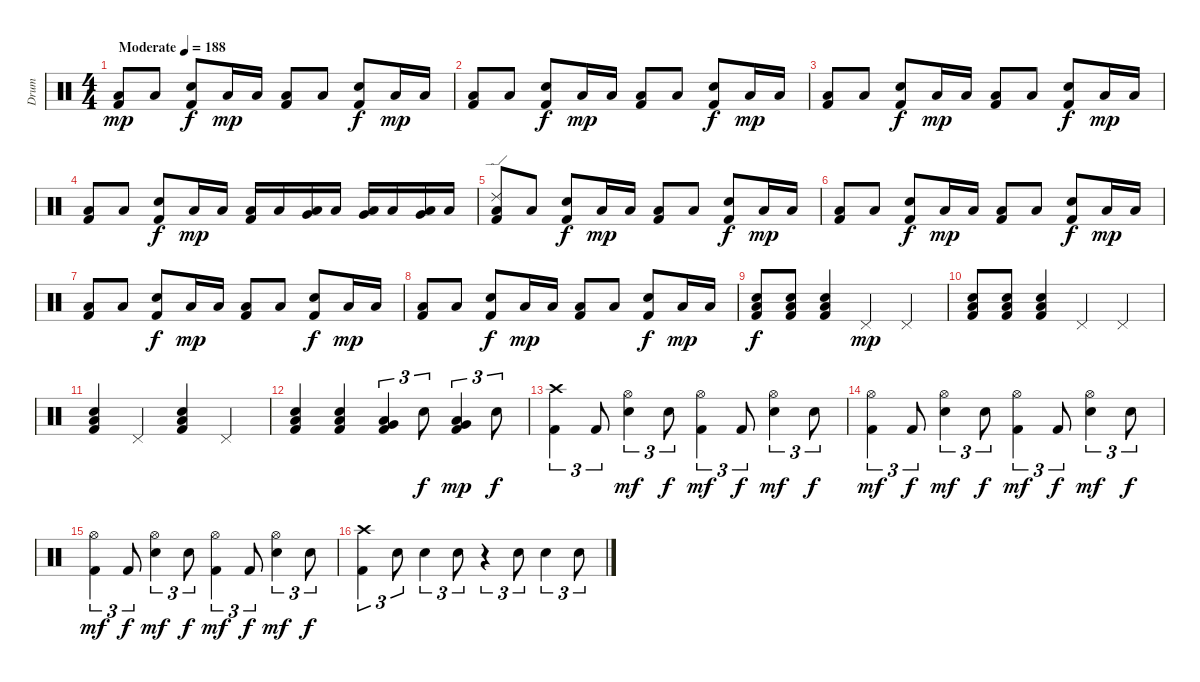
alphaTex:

\track ("Drum" "Drum") {instrument percussion}
\staff {score}
\articulation defaults
\ts (4 4)
\tempo (188 "Moderate")
\clef neutral
\ks c
("Kick (hit) 2" "Low Floor Tom (hit)").8{dy mp} "Low Floor Tom (hit)".8 ("Snare (hit) 2" "Kick (hit) 2").8{dy f} "Low Floor Tom (hit)".16{dy mp} "Low Floor Tom (hit)".16 ("Kick (hit) 2" "Low Floor Tom (hit)").8 "Low Floor Tom (hit)".8 ("Snare (hit) 2" "Kick (hit) 2").8{dy f} "Low Floor Tom (hit)".16{dy mp} "Low Floor Tom (hit)".16 |
("Kick (hit) 2" "Low Floor Tom (hit)").8 "Low Floor Tom (hit)".8 ("Snare (hit) 2" "Kick (hit) 2").8{dy f} "Low Floor Tom (hit)".16{dy mp} "Low Floor Tom (hit)".16 ("Kick (hit) 2" "Low Floor Tom (hit)").8 "Low Floor Tom (hit)".8 ("Snare (hit) 2" "Kick (hit) 2").8{dy f} "Low Floor Tom (hit)".16{dy mp} "Low Floor Tom (hit)".16 |
("Kick (hit) 2" "Low Floor Tom (hit)").8 "Low Floor Tom (hit)".8 ("Snare (hit) 2" "Kick (hit) 2").8{dy f} "Low Floor Tom (hit)".16{dy mp} "Low Floor Tom (hit)".16 ("Kick (hit) 2" "Low Floor Tom (hit)").8 "Low Floor Tom (hit)".8 ("Snare (hit) 2" "Kick (hit) 2").8{dy f} "Low Floor Tom (hit)".16{dy mp} "Low Floor Tom (hit)".16 |
("Kick (hit) 2" "Low Floor Tom (hit)").8 "Low Floor Tom (hit)".8 ("Snare (hit) 2" "Kick (hit) 2").8{dy f} "Low Floor Tom (hit)".16{dy mp} "Low Floor Tom (hit)".16 ("Kick (hit) 2" "Low Floor Tom (hit)").16 "Low Floor Tom (hit)".16 ("Low Floor Tom (hit)" "Very Low Tom (hit)").16 "Low Floor Tom (hit)".16 ("Low Floor Tom (hit)" "Very Low Tom (hit)").16 "Low Floor Tom (hit)".16 ("Low Floor Tom (hit)" "Very Low Tom (hit)").16 "Low Floor Tom (hit)".16 |
("Kick (hit) 2" "Low Floor Tom (hit)" "Ride (edge) 2").8 "Low Floor Tom (hit)".8 ("Snare (hit) 2" "Kick (hit) 2").8{dy f} "Low Floor Tom (hit)".16{dy mp} "Low Floor Tom (hit)".16 ("Kick (hit) 2" "Low Floor Tom (hit)").8 "Low Floor Tom (hit)".8 ("Snare (hit) 2" "Kick (hit) 2").8{dy f} "Low Floor Tom (hit)".16{dy mp} "Low Floor Tom (hit)".16 |
("Kick (hit) 2" "Low Floor Tom (hit)").8 "Low Floor Tom (hit)".8 ("Snare (hit) 2" "Kick (hit) 2").8{dy f} "Low Floor Tom (hit)".16{dy mp} "Low Floor Tom (hit)".16 ("Kick (hit) 2" "Low Floor Tom (hit)").8 "Low Floor Tom (hit)".8 ("Snare (hit) 2" "Kick (hit) 2").8{dy f} "Low Floor Tom (hit)".16{dy mp} "Low Floor Tom (hit)".16 |
("Kick (hit) 2" "Low Floor Tom (hit)").8 "Low Floor Tom (hit)".8 ("Snare (hit) 2" "Kick (hit) 2").8{dy f} "Low Floor Tom (hit)".16{dy mp} "Low Floor Tom (hit)".16 ("Kick (hit) 2" "Low Floor Tom (hit)").8 "Low Floor Tom (hit)".8 ("Snare (hit) 2" "Kick (hit) 2").8{dy f} "Low Floor Tom (hit)".16{dy mp} "Low Floor Tom (hit)".16 |
("Kick (hit) 2" "Low Floor Tom (hit)").8 "Low Floor Tom (hit)".8 ("Snare (hit) 2" "Kick (hit) 2").8{dy f} "Low Floor Tom (hit)".16{dy mp} "Low Floor Tom (hit)".16 ("Kick (hit) 2" "Low Floor Tom (hit)").8 "Low Floor Tom (hit)".8 ("Snare (hit) 2" "Kick (hit) 2").8{dy f} "Low Floor Tom (hit)".16{dy mp} "Low Floor Tom (hit)".16 |
("Snare (hit) 2" "Kick (hit) 2" "Low Floor Tom (hit)").8{dy f} ("Snare (hit) 2" "Kick (hit) 2" "Low Floor Tom (hit)").8 ("Snare (hit) 2" "Low Floor Tom (hit)" "Kick (hit) 2").4 "Pedal Hi-Hat (hit)".4{dy mp} "Pedal Hi-Hat (hit)".4 |
("Snare (hit) 2" "Kick (hit) 2" "Low Floor Tom (hit)").8 ("Snare (hit) 2" "Kick (hit) 2" "Low Floor Tom (hit)").8 ("Snare (hit) 2" "Low Floor Tom (hit)" "Kick (hit) 2").4 "Pedal Hi-Hat (hit)".4 "Pedal Hi-Hat (hit)".4 |
("Snare (hit) 2" "Kick (hit) 2" "Low Floor Tom (hit)").4 "Pedal Hi-Hat (hit)".4 ("Snare (hit) 2" "Kick (hit) 2" "Low Floor Tom (hit)").4 "Pedal Hi-Hat (hit)".4 |
("Snare (hit) 2" "Low Floor Tom (hit)" "Kick (hit) 2").4 ("Snare (hit) 2" "Low Floor Tom (hit)" "Kick (hit) 2").4 ("Kick (hit) 2" "Low Floor Tom (hit)" "Very Low Tom (hit)").4{tu (3 2)} "Snare (hit) 2".8{tu (3 2) dy f} ("Kick (hit) 2" "Low Floor Tom (hit)" "Very Low Tom (hit)").4{tu (3 2) dy mp} "Snare (hit) 2".8{tu (3 2) dy f} |
("Kick (hit) 2" "Crash high (hit)").4{tu (3 2)} "Kick (hit) 2".8{tu (3 2)} ("Snare (hit) 2" "Hi-Hat (open)").4{tu (3 2) dy mf} "Snare (hit) 2".8{tu (3 2) dy f} ("Kick (hit) 2" "Hi-Hat (open)").4{tu (3 2) dy mf} "Kick (hit) 2".8{tu (3 2) dy f} ("Snare (hit) 2" "Hi-Hat (open)").4{tu (3 2) dy mf} "Snare (hit) 2".8{tu (3 2) dy f} |
("Kick (hit) 2" "Hi-Hat (open)").4{tu (3 2) dy mf} "Kick (hit) 2".8{tu (3 2) dy f} ("Snare (hit) 2" "Hi-Hat (open)").4{tu (3 2) dy mf} "Snare (hit) 2".8{tu (3 2) dy f} ("Kick (hit) 2" "Hi-Hat (open)").4{tu (3 2) dy mf} "Kick (hit) 2".8{tu (3 2) dy f} ("Snare (hit) 2" "Hi-Hat (open)").4{tu (3 2) dy mf} "Snare (hit) 2".8{tu (3 2) dy f} |
("Kick (hit) 2" "Hi-Hat (open)").4{tu (3 2) dy mf} "Kick (hit) 2".8{tu (3 2) dy f} ("Snare (hit) 2" "Hi-Hat (open)").4{tu (3 2) dy mf} "Snare (hit) 2".8{tu (3 2) dy f} ("Kick (hit) 2" "Hi-Hat (open)").4{tu (3 2) dy mf} "Kick (hit) 2".8{tu (3 2) dy f} ("Snare (hit) 2" "Hi-Hat (open)").4{tu (3 2) dy mf} "Snare (hit) 2".8{tu (3 2) dy f} |
("Kick (hit) 2" "Crash high (hit)").4{tu (3 2)} "Snare (hit) 2".8{tu (3 2)} "Snare (hit) 2".4{tu (3 2)} "Snare (hit) 2".8{tu (3 2)} r.4{tu (3 2)} "Snare (hit) 2".8{tu (3 2)} "Snare (hit) 2".4{tu (3 2)} "Snare (hit) 2".8{tu (3 2)}
